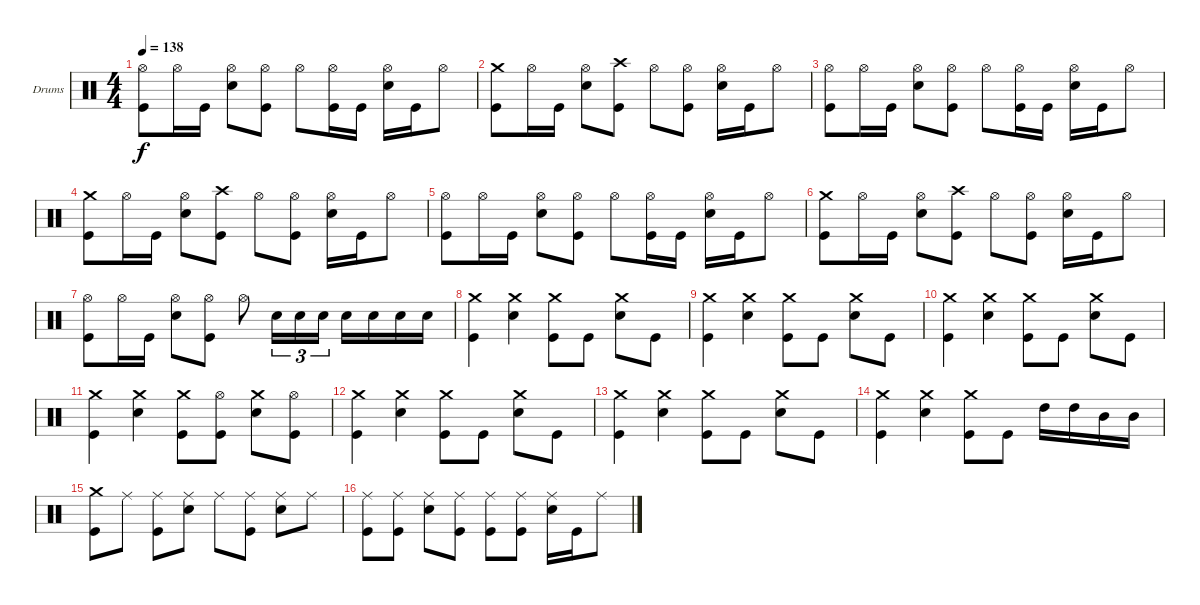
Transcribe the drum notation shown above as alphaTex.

\defaultSystemsLayout 4
\bracketExtendMode groupsimilarinstruments
\firstSystemTrackNameOrientation horizontal
\otherSystemsTrackNameOrientation horizontal
\track ("Drumkit" "Drums") {instrument percussion}
\staff {score}
\articulation defaults
\ts (4 4)
\tempo 138
\clef neutral
\ks c
("Kick (hit)" "Hi-Hat (open)").8{dy f} "Hi-Hat (open)".16 "Kick (hit)".16 ("Hi-Hat (open)" "Snare (hit) 2").8 ("Kick (hit)" "Hi-Hat (open)").8 "Hi-Hat (open)".8 ("Hi-Hat (open)" "Kick (hit)").16 "Kick (hit)".16 ("Hi-Hat (open)" "Snare (hit) 2").16 "Kick (hit)".16 "Hi-Hat (open)".8 |
("Kick (hit)" "Crash medium (hit)").8 "Hi-Hat (open)".16 "Kick (hit)".16 ("Hi-Hat (open)" "Snare (hit) 2").8 ("Kick (hit)" "Crash high (hit)").8 "Hi-Hat (open)".8 ("Hi-Hat (open)" "Kick (hit)").8 ("Hi-Hat (open)" "Snare (hit) 2").16 "Kick (hit)".16 "Hi-Hat (open)".8 |
("Kick (hit)" "Hi-Hat (open)").8 "Hi-Hat (open)".16 "Kick (hit)".16 ("Hi-Hat (open)" "Snare (hit) 2").8 ("Kick (hit)" "Hi-Hat (open)").8 "Hi-Hat (open)".8 ("Hi-Hat (open)" "Kick (hit)").16 "Kick (hit)".16 ("Hi-Hat (open)" "Snare (hit) 2").16 "Kick (hit)".16 "Hi-Hat (open)".8 |
("Kick (hit)" "Crash medium (hit)").8 "Hi-Hat (open)".16 "Kick (hit)".16 ("Hi-Hat (open)" "Snare (hit) 2").8 ("Kick (hit)" "Crash high (hit)").8 "Hi-Hat (open)".8 ("Hi-Hat (open)" "Kick (hit)").8 ("Hi-Hat (open)" "Snare (hit) 2").16 "Kick (hit)".16 "Hi-Hat (open)".8 |
("Kick (hit)" "Hi-Hat (open)").8 "Hi-Hat (open)".16 "Kick (hit)".16 ("Hi-Hat (open)" "Snare (hit) 2").8 ("Kick (hit)" "Hi-Hat (open)").8 "Hi-Hat (open)".8 ("Hi-Hat (open)" "Kick (hit)").16 "Kick (hit)".16 ("Hi-Hat (open)" "Snare (hit) 2").16 "Kick (hit)".16 "Hi-Hat (open)".8 |
("Kick (hit)" "Crash medium (hit)").8 "Hi-Hat (open)".16 "Kick (hit)".16 ("Hi-Hat (open)" "Snare (hit) 2").8 ("Kick (hit)" "Crash high (hit)").8 "Hi-Hat (open)".8 ("Hi-Hat (open)" "Kick (hit)").8 ("Hi-Hat (open)" "Snare (hit) 2").16 "Kick (hit)".16 "Hi-Hat (open)".8 |
("Kick (hit)" "Hi-Hat (open)").8 "Hi-Hat (open)".16 "Kick (hit)".16 ("Hi-Hat (open)" "Snare (hit) 2").8 ("Kick (hit)" "Hi-Hat (open)").8 "Hi-Hat (open)".8 "Snare (hit) 2".16{tu (3 2)} "Snare (hit) 2".16{tu (3 2)} "Snare (hit) 2".16{tu (3 2)} "Snare (hit) 2".16 "Snare (hit) 2".16 "Snare (hit) 2".16 "Snare (hit) 2".16 |
("Kick (hit)" "Crash medium (hit)").4 ("Crash medium (hit)" "Snare (hit) 2").4 ("Kick (hit)" "Crash medium (hit)").8 "Kick (hit)".8 ("Crash medium (hit)" "Snare (hit) 2").8 "Kick (hit)".8 |
("Kick (hit)" "Crash medium (hit)").4 ("Crash medium (hit)" "Snare (hit) 2").4 ("Kick (hit)" "Crash medium (hit)").8 "Kick (hit)".8 ("Crash medium (hit)" "Snare (hit) 2").8 "Kick (hit)".8 |
("Kick (hit)" "Crash medium (hit)").4 ("Crash medium (hit)" "Snare (hit) 2").4 ("Kick (hit)" "Crash medium (hit)").8 "Kick (hit)".8 ("Crash medium (hit)" "Snare (hit) 2").8 "Kick (hit)".8 |
("Kick (hit)" "Crash medium (hit)").4 ("Crash medium (hit)" "Snare (hit) 2").4 ("Kick (hit)" "Crash medium (hit)").8 ("Kick (hit)" "Hi-Hat (open)").8 ("Crash medium (hit)" "Snare (hit) 2").8 ("Kick (hit)" "Hi-Hat (open)").8 |
("Kick (hit)" "Crash medium (hit)").4 ("Crash medium (hit)" "Snare (hit) 2").4 ("Kick (hit)" "Crash medium (hit)").8 "Kick (hit)".8 ("Crash medium (hit)" "Snare (hit) 2").8 "Kick (hit)".8 |
("Kick (hit)" "Crash medium (hit)").4 ("Crash medium (hit)" "Snare (hit) 2").4 ("Kick (hit)" "Crash medium (hit)").8 "Kick (hit)".8 ("Crash medium (hit)" "Snare (hit) 2").8 "Kick (hit)".8 |
("Kick (hit)" "Crash medium (hit)").4 ("Crash medium (hit)" "Snare (hit) 2").4 ("Kick (hit)" "Crash medium (hit)").8 "Kick (hit)".8 "High Tom (hit)".16 "High Tom (hit)".16 "Mid Tom (hit)".16 "Mid Tom (hit)".16 |
("Kick (hit)" "Crash medium (hit)").8 "Ride (middle)".8 ("Ride (middle)" "Kick (hit)").8 ("Ride (middle)" "Snare (hit) 2").8 "Ride (middle)".8 ("Ride (middle)" "Kick (hit)").8 ("Ride (middle)" "Snare (hit) 2").8 "Ride (middle)".8 |
("Ride (middle)" "Kick (hit)").8 ("Ride (middle)" "Kick (hit)").8 ("Ride (middle)" "Snare (hit) 2").8 ("Ride (middle)" "Kick (hit)").8 ("Ride (middle)" "Kick (hit)").8 ("Ride (middle)" "Kick (hit)").8 ("Ride (middle)" "Snare (hit) 2").16 "Kick (hit)".16 "Ride (middle)".8
